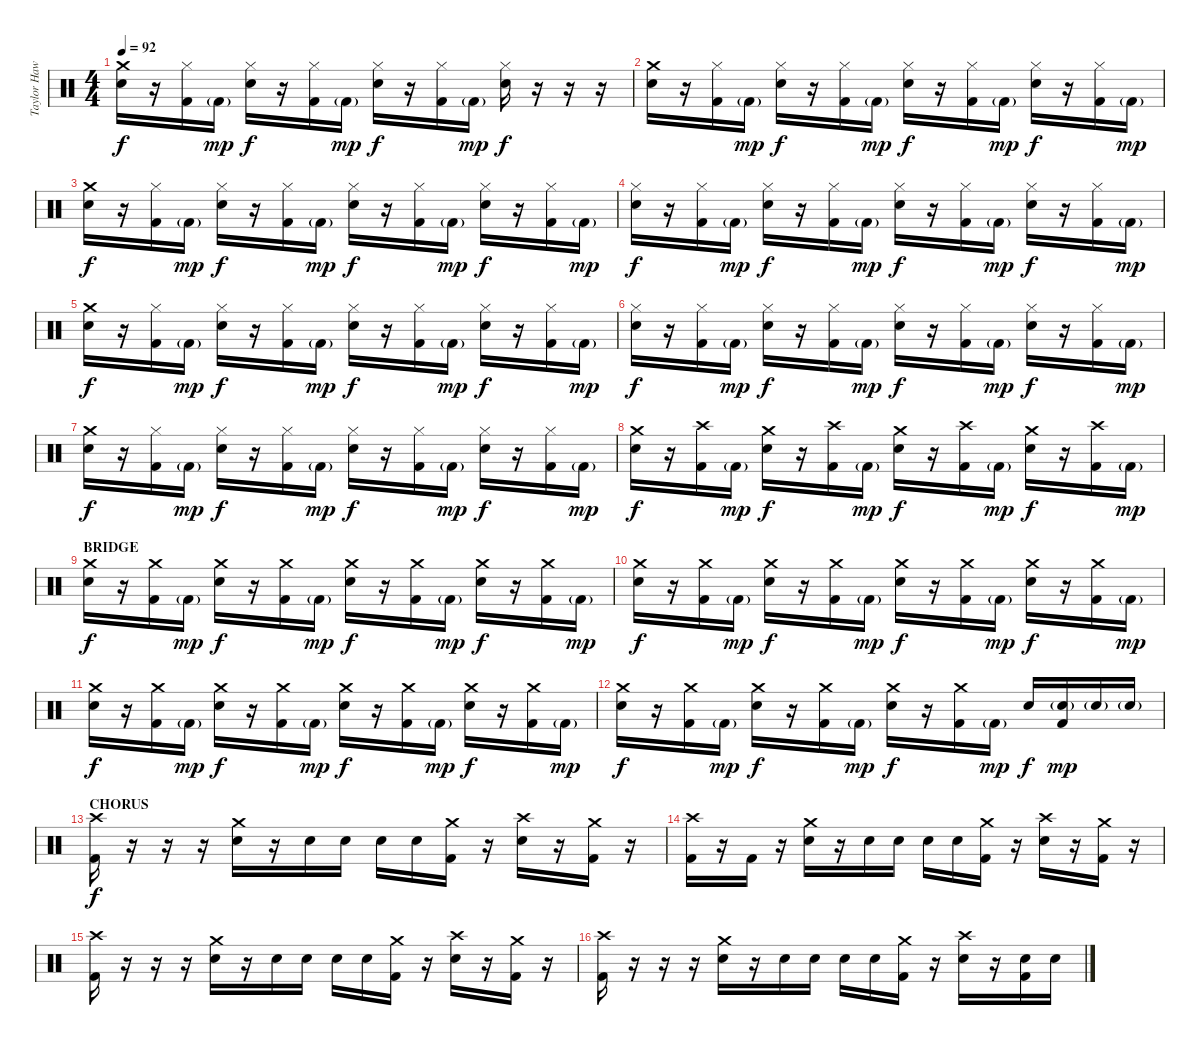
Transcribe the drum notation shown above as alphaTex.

\track ("Taylor Hawkins (Drums)" "Taylor Haw") {instrument percussion}
\staff {score}
\articulation defaults
\ts (4 4)
\tempo 92
\clef neutral
\ks c
("Crash medium (hit)" "Electric Snare (hit)").16{dy f} r.16 ("Hi-Hat (closed)" "Kick (hit) 2").16 "Kick (hit) 2"{g}.16{dy mp} ("Hi-Hat (closed)" "Electric Snare (hit)").16{dy f} r.16 ("Hi-Hat (closed)" "Kick (hit) 2").16 "Kick (hit) 2"{g}.16{dy mp} ("Hi-Hat (closed)" "Electric Snare (hit)").16{dy f} r.16 ("Hi-Hat (closed)" "Kick (hit) 2").16 "Kick (hit) 2"{g}.16{dy mp} ("Hi-Hat (closed)" "Electric Snare (hit)").16{dy f} r.16 r.16 r.16 |
("Crash medium (hit)" "Electric Snare (hit)").16 r.16 ("Hi-Hat (closed)" "Kick (hit) 2").16 "Kick (hit) 2"{g}.16{dy mp} ("Hi-Hat (closed)" "Electric Snare (hit)").16{dy f} r.16 ("Hi-Hat (closed)" "Kick (hit) 2").16 "Kick (hit) 2"{g}.16{dy mp} ("Hi-Hat (closed)" "Electric Snare (hit)").16{dy f} r.16 ("Hi-Hat (closed)" "Kick (hit) 2").16 "Kick (hit) 2"{g}.16{dy mp} ("Hi-Hat (closed)" "Electric Snare (hit)").16{dy f} r.16 ("Hi-Hat (closed)" "Kick (hit) 2").16 "Kick (hit) 2"{g}.16{dy mp} |
("Crash medium (hit)" "Electric Snare (hit)").16{dy f} r.16 ("Hi-Hat (closed)" "Kick (hit) 2").16 "Kick (hit) 2"{g}.16{dy mp} ("Hi-Hat (closed)" "Electric Snare (hit)").16{dy f} r.16 ("Hi-Hat (closed)" "Kick (hit) 2").16 "Kick (hit) 2"{g}.16{dy mp} ("Hi-Hat (closed)" "Electric Snare (hit)").16{dy f} r.16 ("Hi-Hat (closed)" "Kick (hit) 2").16 "Kick (hit) 2"{g}.16{dy mp} ("Hi-Hat (closed)" "Electric Snare (hit)").16{dy f} r.16 ("Hi-Hat (closed)" "Kick (hit) 2").16 "Kick (hit) 2"{g}.16{dy mp} |
("Hi-Hat (closed)" "Electric Snare (hit)").16{dy f} r.16 ("Hi-Hat (closed)" "Kick (hit) 2").16 "Kick (hit) 2"{g}.16{dy mp} ("Hi-Hat (closed)" "Electric Snare (hit)").16{dy f} r.16 ("Hi-Hat (closed)" "Kick (hit) 2").16 "Kick (hit) 2"{g}.16{dy mp} ("Hi-Hat (closed)" "Electric Snare (hit)").16{dy f} r.16 ("Hi-Hat (closed)" "Kick (hit) 2").16 "Kick (hit) 2"{g}.16{dy mp} ("Hi-Hat (closed)" "Electric Snare (hit)").16{dy f} r.16 ("Hi-Hat (closed)" "Kick (hit) 2").16 "Kick (hit) 2"{g}.16{dy mp} |
("Crash medium (hit)" "Electric Snare (hit)").16{dy f} r.16 ("Hi-Hat (closed)" "Kick (hit) 2").16 "Kick (hit) 2"{g}.16{dy mp} ("Hi-Hat (closed)" "Electric Snare (hit)").16{dy f} r.16 ("Hi-Hat (closed)" "Kick (hit) 2").16 "Kick (hit) 2"{g}.16{dy mp} ("Hi-Hat (closed)" "Electric Snare (hit)").16{dy f} r.16 ("Hi-Hat (closed)" "Kick (hit) 2").16 "Kick (hit) 2"{g}.16{dy mp} ("Hi-Hat (closed)" "Electric Snare (hit)").16{dy f} r.16 ("Hi-Hat (closed)" "Kick (hit) 2").16 "Kick (hit) 2"{g}.16{dy mp} |
("Hi-Hat (closed)" "Electric Snare (hit)").16{dy f} r.16 ("Hi-Hat (closed)" "Kick (hit) 2").16 "Kick (hit) 2"{g}.16{dy mp} ("Hi-Hat (closed)" "Electric Snare (hit)").16{dy f} r.16 ("Hi-Hat (closed)" "Kick (hit) 2").16 "Kick (hit) 2"{g}.16{dy mp} ("Hi-Hat (closed)" "Electric Snare (hit)").16{dy f} r.16 ("Hi-Hat (closed)" "Kick (hit) 2").16 "Kick (hit) 2"{g}.16{dy mp} ("Hi-Hat (closed)" "Electric Snare (hit)").16{dy f} r.16 ("Hi-Hat (closed)" "Kick (hit) 2").16 "Kick (hit) 2"{g}.16{dy mp} |
("Crash medium (hit)" "Electric Snare (hit)").16{dy f} r.16 ("Hi-Hat (closed)" "Kick (hit) 2").16 "Kick (hit) 2"{g}.16{dy mp} ("Hi-Hat (closed)" "Electric Snare (hit)").16{dy f} r.16 ("Hi-Hat (closed)" "Kick (hit) 2").16 "Kick (hit) 2"{g}.16{dy mp} ("Hi-Hat (closed)" "Electric Snare (hit)").16{dy f} r.16 ("Hi-Hat (closed)" "Kick (hit) 2").16 "Kick (hit) 2"{g}.16{dy mp} ("Hi-Hat (closed)" "Electric Snare (hit)").16{dy f} r.16 ("Hi-Hat (closed)" "Kick (hit) 2").16 "Kick (hit) 2"{g}.16{dy mp} |
("Crash medium (hit)" "Electric Snare (hit)").16{dy f} r.16 ("Crash high (hit)" "Kick (hit) 2").16 "Kick (hit) 2"{g}.16{dy mp} ("Crash medium (hit)" "Electric Snare (hit)").16{dy f} r.16 ("Crash high (hit)" "Kick (hit) 2").16 "Kick (hit) 2"{g}.16{dy mp} ("Crash medium (hit)" "Electric Snare (hit)").16{dy f} r.16 ("Crash high (hit)" "Kick (hit) 2").16 "Kick (hit) 2"{g}.16{dy mp} ("Crash medium (hit)" "Electric Snare (hit)").16{dy f} r.16 ("Crash high (hit)" "Kick (hit) 2").16 "Kick (hit) 2"{g}.16{dy mp} |
\section ("" "BRIDGE")
("Crash medium (hit)" "Electric Snare (hit)").16{dy f} r.16 ("Crash medium (hit)" "Kick (hit) 2").16 "Kick (hit) 2"{g}.16{dy mp} ("Crash medium (hit)" "Electric Snare (hit)").16{dy f} r.16 ("Crash medium (hit)" "Kick (hit) 2").16 "Kick (hit) 2"{g}.16{dy mp} ("Crash medium (hit)" "Electric Snare (hit)").16{dy f} r.16 ("Crash medium (hit)" "Kick (hit) 2").16 "Kick (hit) 2"{g}.16{dy mp} ("Crash medium (hit)" "Electric Snare (hit)").16{dy f} r.16 ("Crash medium (hit)" "Kick (hit) 2").16 "Kick (hit) 2"{g}.16{dy mp} |
("Crash medium (hit)" "Electric Snare (hit)").16{dy f} r.16 ("Crash medium (hit)" "Kick (hit) 2").16 "Kick (hit) 2"{g}.16{dy mp} ("Crash medium (hit)" "Electric Snare (hit)").16{dy f} r.16 ("Crash medium (hit)" "Kick (hit) 2").16 "Kick (hit) 2"{g}.16{dy mp} ("Crash medium (hit)" "Electric Snare (hit)").16{dy f} r.16 ("Crash medium (hit)" "Kick (hit) 2").16 "Kick (hit) 2"{g}.16{dy mp} ("Crash medium (hit)" "Electric Snare (hit)").16{dy f} r.16 ("Crash medium (hit)" "Kick (hit) 2").16 "Kick (hit) 2"{g}.16{dy mp} |
("Crash medium (hit)" "Electric Snare (hit)").16{dy f} r.16 ("Crash medium (hit)" "Kick (hit) 2").16 "Kick (hit) 2"{g}.16{dy mp} ("Crash medium (hit)" "Electric Snare (hit)").16{dy f} r.16 ("Crash medium (hit)" "Kick (hit) 2").16 "Kick (hit) 2"{g}.16{dy mp} ("Crash medium (hit)" "Electric Snare (hit)").16{dy f} r.16 ("Crash medium (hit)" "Kick (hit) 2").16 "Kick (hit) 2"{g}.16{dy mp} ("Crash medium (hit)" "Electric Snare (hit)").16{dy f} r.16 ("Crash medium (hit)" "Kick (hit) 2").16 "Kick (hit) 2"{g}.16{dy mp} |
("Crash medium (hit)" "Electric Snare (hit)").16{dy f} r.16 ("Crash medium (hit)" "Kick (hit) 2").16 "Kick (hit) 2"{g}.16{dy mp} ("Crash medium (hit)" "Electric Snare (hit)").16{dy f} r.16 ("Crash medium (hit)" "Kick (hit) 2").16 "Kick (hit) 2"{g}.16{dy mp} ("Crash medium (hit)" "Electric Snare (hit)").16{dy f} r.16 ("Crash medium (hit)" "Kick (hit) 2").16 "Kick (hit) 2"{g}.16{dy mp} "Electric Snare (hit)".16{dy f} ("Electric Snare (hit)"{g} "Kick (hit) 2").16{dy mp} "Electric Snare (hit)"{g}.16 "Electric Snare (hit)"{g}.16 |
\section ("" "CHORUS")
("Crash high (hit)" "Kick (hit) 2").16{dy f} r.16 r.16 r.16 ("Crash medium (hit)" "Electric Snare (hit)").16 r.16 "Electric Snare (hit)".16 "Electric Snare (hit)".16 "Electric Snare (hit)".16 "Electric Snare (hit)".16 ("Crash medium (hit)" "Kick (hit) 2").16 r.16 ("Crash high (hit)" "Electric Snare (hit)").16 r.16 ("Crash medium (hit)" "Kick (hit) 2").16 r.16 |
("Crash high (hit)" "Kick (hit) 2").16 r.16 "Kick (hit) 2".16 r.16 ("Crash medium (hit)" "Electric Snare (hit)").16 r.16 "Electric Snare (hit)".16 "Electric Snare (hit)".16 "Electric Snare (hit)".16 "Electric Snare (hit)".16 ("Crash medium (hit)" "Kick (hit) 2").16 r.16 ("Crash high (hit)" "Electric Snare (hit)").16 r.16 ("Crash medium (hit)" "Kick (hit) 2").16 r.16 |
("Crash high (hit)" "Kick (hit) 2").16 r.16 r.16 r.16 ("Crash medium (hit)" "Electric Snare (hit)").16 r.16 "Electric Snare (hit)".16 "Electric Snare (hit)".16 "Electric Snare (hit)".16 "Electric Snare (hit)".16 ("Crash medium (hit)" "Kick (hit) 2").16 r.16 ("Crash high (hit)" "Electric Snare (hit)").16 r.16 ("Crash medium (hit)" "Kick (hit) 2").16 r.16 |
("Crash high (hit)" "Kick (hit) 2").16 r.16 r.16 r.16 ("Crash medium (hit)" "Electric Snare (hit)").16 r.16 "Electric Snare (hit)".16 "Electric Snare (hit)".16 "Electric Snare (hit)".16 "Electric Snare (hit)".16 ("Crash medium (hit)" "Kick (hit) 2").16 r.16 ("Crash high (hit)" "Electric Snare (hit)").16 r.16 ("Electric Snare (hit)" "Kick (hit) 2").16 "Electric Snare (hit)".16
